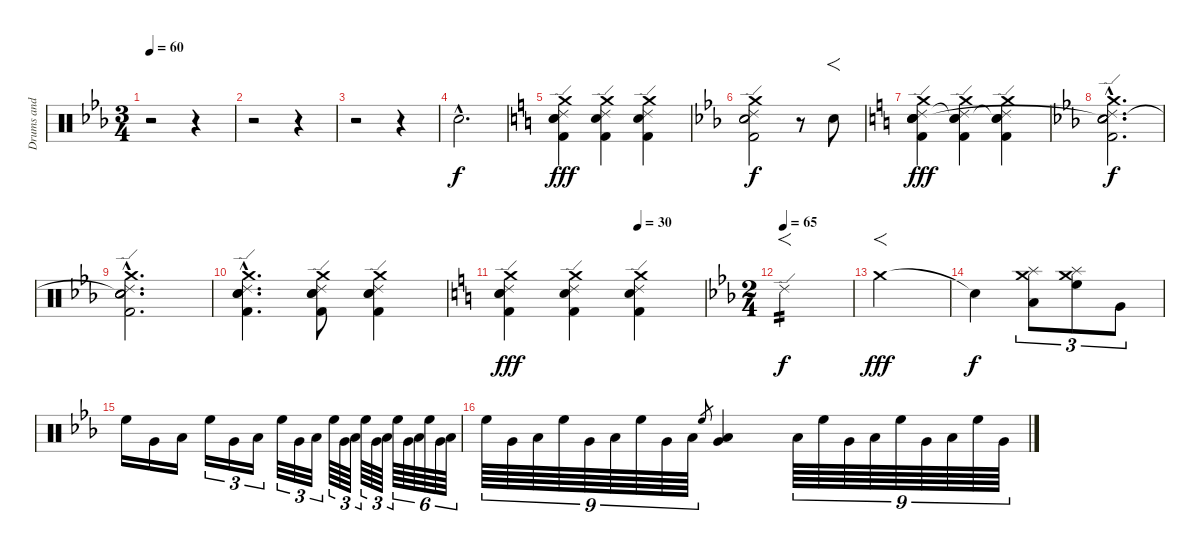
\track ("Drums and percussion" "Drums and ") {instrument percussion}
\staff {score}
\articulation defaults
\ts (3 4)
\tempo 60
\clef neutral
\ks eb
r.2{dy f} r.4 |
r.2 r.4 |
r.2{volume 0} r.4 |
"Snare (hit) 2"{tr (38 64) hac}.2{d volume 16} |
\ks c
("Snare (hit) 2" "Kick (hit) 2" "Snare (hit) 2" "Crash medium (hit)" "Ride (edge) 2").4{dy fff} ("Kick (hit) 2" "Snare (hit) 2" "Crash medium (hit)" "Ride (edge) 2").4{volume 8} ("Snare (hit) 2" "Crash medium (hit)" "Ride (edge) 2" "Kick (hit) 2").4 |
\ks eb
("Snare (hit) 2" "Ride (edge) 2" "Crash medium (hit)" "Kick (hit) 2" "Snare (hit) 2").2{dy f} r.8 "Snare (hit) 2"{tr (38 64)}.8{f} |
\ks c
("Snare (hit) 2" "Kick (hit) 2" "Snare (hit) 2" "Crash medium (hit)" "Ride (edge) 2" "Snare (hit)").4{dy fff} ("Kick (hit) 2" "Snare (hit) 2" "Crash medium (hit)" "Ride (edge) 2" "Snare (hit)"{t}).4 ("Snare (hit) 2" "Crash medium (hit)" "Ride (edge) 2" "Kick (hit) 2" "Snare (hit)"{t}).4 |
\ks eb
("Snare (hit) 2"{hac} "Ride (edge) 2"{hac} "Crash medium (hit)"{hac} "Kick (hit) 2"{hac} "Snare (hit) 2"{hac} "Snare (hit)"{hac t}).2{d dy f} |
("Snare (hit) 2"{hac} "Ride (edge) 2"{hac} "Crash medium (hit)"{hac} "Kick (hit) 2"{hac} "Snare (hit) 2"{hac} "Snare (hit)"{hac t}).2{d} |
("Snare (hit) 2"{hac} "Ride (edge) 2"{hac} "Crash medium (hit)"{hac} "Kick (hit) 2"{hac} "Snare (hit) 2"{hac}).4{d} ("Snare (hit) 2" "Ride (edge) 2" "Crash medium (hit)" "Kick (hit) 2" "Snare (hit) 2").8 ("Snare (hit) 2" "Ride (edge) 2" "Crash medium (hit)" "Kick (hit) 2" "Snare (hit) 2").4 |
\tempo (30 0.6666666666666666)
\ks c
("Snare (hit) 2" "Kick (hit) 2" "Snare (hit) 2" "Crash medium (hit)" "Ride (edge) 2").4{dy fff volume 10} ("Kick (hit) 2" "Snare (hit) 2" "Crash medium (hit)" "Ride (edge) 2").4 ("Snare (hit) 2" "Crash medium (hit)" "Ride (edge) 2" "Kick (hit) 2").4 |
\ts (2 4)
\tempo 65
\ks eb "Ride (edge) 2".2{f tp 2 dy f}
|
"Crash medium (hit)"{tr (57 64)}.2{f dy fff} |
"Snare (hit)"{t}.4{dy f} ("Splash (hit)" "Crash medium (hit)" "Low Tom (hit)").8{tu (3 2)} ("Splash (hit)" "Crash medium (hit)" "High Floor Tom (hit)").8{tu (3 2)} "Very Low Tom (hit)".8{tu (3 2)} |
"High Floor Tom (hit)".16 "Very Low Tom (hit)".16 "Low Tom (hit)".16 "High Floor Tom (hit)".16{tu (3 2)} "Very Low Tom (hit)".16{tu (3 2)} "Low Tom (hit)".16{tu (3 2)} "High Floor Tom (hit)".32{tu (3 2)} "Very Low Tom (hit)".32{tu (3 2)} "Low Tom (hit)".32{tu (3 2)} "High Floor Tom (hit)".64{tu (3 2)} "Very Low Tom (hit)".64{tu (3 2)} "Low Tom (hit)".64{tu (3 2)} "High Floor Tom (hit)".64{tu (3 2)} "Very Low Tom (hit)".64{tu (3 2)} "Low Tom (hit)".64{tu (3 2)} "High Floor Tom (hit)".64{tu (6 4)} "Very Low Tom (hit)".64{tu (6 4)} "Low Tom (hit)".64{tu (6 4)} "High Floor Tom (hit)".64{tu (6 4)} "Very Low Tom (hit)".64{tu (6 4)} "Low Tom (hit)".64{tu (6 4)} |
"High Floor Tom (hit)".64{tu (9 8)} "Very Low Tom (hit)".64{tu (9 8)} "Low Tom (hit)".64{tu (9 8)} "High Floor Tom (hit)".64{tu (9 8)} "Very Low Tom (hit)".64{tu (9 8)} "Low Tom (hit)".64{tu (9 8)} "High Floor Tom (hit)".64{tu (9 8)} "Very Low Tom (hit)".64{tu (9 8)} "Low Tom (hit)".64{tu (9 8)} "High Floor Tom (hit)".8{gr} ("Low Tom (hit)" "Very Low Tom (hit)").4 "Low Tom (hit)".64{tu (9 8)} "High Floor Tom (hit)".64{tu (9 8)} "Very Low Tom (hit)".64{tu (9 8)} "Low Tom (hit)".64{tu (9 8)} "High Floor Tom (hit)".64{tu (9 8)} "Very Low Tom (hit)".64{tu (9 8)} "Low Tom (hit)".64{tu (9 8)} "High Floor Tom (hit)".64{tu (9 8)} "Very Low Tom (hit)".64{tu (9 8)}
